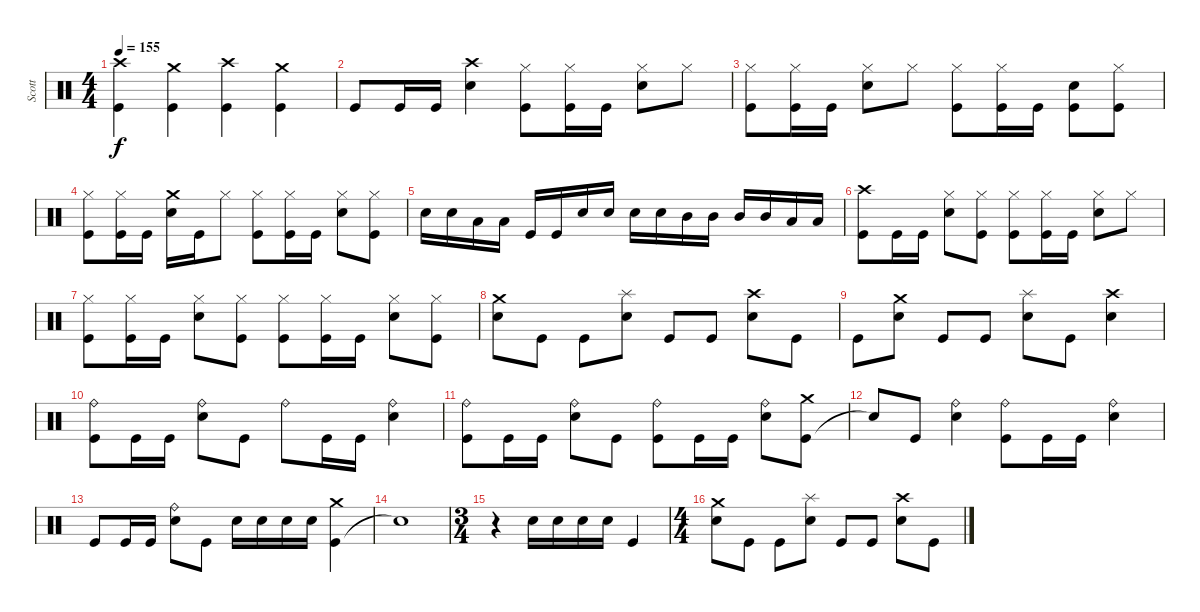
\track ("Scott" "Scott") {instrument percussion}
\staff {score}
\articulation defaults
\ts (4 4)
\tempo 155
\clef neutral
\ks c
("Kick (hit)" "Crash high (hit)").4{dy f} ("Kick (hit)" "Crash medium (hit)").4 ("Kick (hit)" "Crash high (hit)").4 ("Kick (hit)" "Crash medium (hit)").4 |
"Kick (hit)".8 "Kick (hit)".16 "Kick (hit)".16 ("Snare (hit) 2" "Crash high (hit)").4 ("Kick (hit)" "Hi-Hat (closed)").8 ("Kick (hit)" "Hi-Hat (closed)").16 "Kick (hit)".16 ("Snare (hit) 2" "Hi-Hat (closed)").8 "Hi-Hat (closed)".8 |
("Kick (hit)" "Hi-Hat (closed)").8 ("Kick (hit)" "Hi-Hat (closed)").16 "Kick (hit)".16 ("Snare (hit) 2" "Hi-Hat (closed)").8 "Hi-Hat (closed)".8 ("Kick (hit)" "Hi-Hat (closed)").8 ("Kick (hit)" "Hi-Hat (closed)").16 "Kick (hit)".16 ("Kick (hit)" "Snare (hit) 2").8 ("Kick (hit)" "Hi-Hat (closed)").8 |
("Kick (hit)" "Hi-Hat (closed)").8 ("Kick (hit)" "Hi-Hat (closed)").16 "Kick (hit)".16 ("Snare (hit) 2" "Crash medium (hit)").16 "Kick (hit)".16 "Hi-Hat (closed)".8 ("Kick (hit)" "Hi-Hat (closed)").8 ("Kick (hit)" "Hi-Hat (closed)").16 "Kick (hit)".16 ("Snare (hit) 2" "Hi-Hat (closed)").8 ("Kick (hit)" "Hi-Hat (closed)").8 |
"Snare (hit) 2".16 "Snare (hit) 2".16 "Low Tom (hit)".16 "Low Tom (hit)".16 "Kick (hit)".16 "Kick (hit)".16 "Snare (hit) 2".16 "Snare (hit) 2".16 "Snare (hit) 2".16 "Snare (hit) 2".16 "Mid Tom (hit)".16 "Mid Tom (hit)".16 "Mid Tom (hit)".16 "Mid Tom (hit)".16 "Low Tom (hit)".16 "Low Tom (hit)".16 |
("Kick (hit)" "Crash high (hit)").8 "Kick (hit)".16 "Kick (hit)".16 ("Snare (hit) 2" "Hi-Hat (closed)").8 ("Kick (hit)" "Hi-Hat (closed)").8 ("Kick (hit)" "Hi-Hat (closed)").8 ("Kick (hit)" "Hi-Hat (closed)").16 "Kick (hit)".16 ("Snare (hit) 2" "Hi-Hat (closed)").8 "Hi-Hat (closed)".8 |
("Kick (hit)" "Hi-Hat (closed)").8 ("Kick (hit)" "Hi-Hat (closed)").16 "Kick (hit)".16 ("Snare (hit) 2" "Hi-Hat (closed)").8 ("Kick (hit)" "Hi-Hat (closed)").8 ("Kick (hit)" "Hi-Hat (closed)").8 ("Kick (hit)" "Hi-Hat (closed)").16 "Kick (hit)".16 ("Snare (hit) 2" "Hi-Hat (closed)").8 ("Kick (hit)" "Hi-Hat (closed)").8 |
("Snare (hit) 2" "Crash medium (hit)").8 "Kick (hit)".8 "Kick (hit)".8 ("Snare (hit) 2" "Splash (hit)").8 "Kick (hit)".8 "Kick (hit)".8 ("Snare (hit) 2" "Crash high (hit)").8 "Kick (hit)".8 |
"Kick (hit)".8 ("Snare (hit) 2" "Crash medium (hit)").8 "Kick (hit)".8 "Kick (hit)".8 ("Snare (hit) 2" "Splash (hit)").8 "Kick (hit)".8 ("Snare (hit) 2" "Crash high (hit)").4 |
("Kick (hit)" "Ride (bell)").8 "Kick (hit)".16 "Kick (hit)".16 ("Snare (hit) 2" "Ride (bell)").8 "Kick (hit)".8 "Ride (bell)".8 "Kick (hit)".16 "Kick (hit)".16 ("Snare (hit) 2" "Ride (bell)").4 |
("Kick (hit)" "Ride (bell)").8 "Kick (hit)".16 "Kick (hit)".16 ("Snare (hit) 2" "Ride (bell)").8 "Kick (hit)".8 ("Kick (hit)" "Ride (bell)").8 "Kick (hit)".16 "Kick (hit)".16 ("Snare (hit) 2" "Ride (bell)").8 ("Kick (hit)" "Crash medium (hit)").8 |
"Snare (hit)"{t}.8 "Kick (hit)".8 ("Snare (hit) 2" "Ride (bell)").4 ("Kick (hit)" "Ride (bell)").8 "Kick (hit)".16 "Kick (hit)".16 ("Snare (hit) 2" "Ride (bell)").4 |
"Kick (hit)".8 "Kick (hit)".16 "Kick (hit)".16 ("Snare (hit) 2" "Ride (bell)").8 "Kick (hit)".8 "Snare (hit) 2".16 "Snare (hit) 2".16 "Snare (hit) 2".16 "Snare (hit) 2".16 ("Kick (hit)" "Crash medium (hit)").4 |
"Snare (hit)"{t}.1 |
\ts (3 4)
r.4 "Snare (hit) 2".16 "Snare (hit) 2".16 "Snare (hit) 2".16 "Snare (hit) 2".16 "Kick (hit)".4 |
\ts (4 4)
("Snare (hit) 2" "Crash medium (hit)").8 "Kick (hit)".8 "Kick (hit)".8 ("Snare (hit) 2" "Splash (hit)").8 "Kick (hit)".8 "Kick (hit)".8 ("Snare (hit) 2" "Crash high (hit)").8 "Kick (hit)".8
